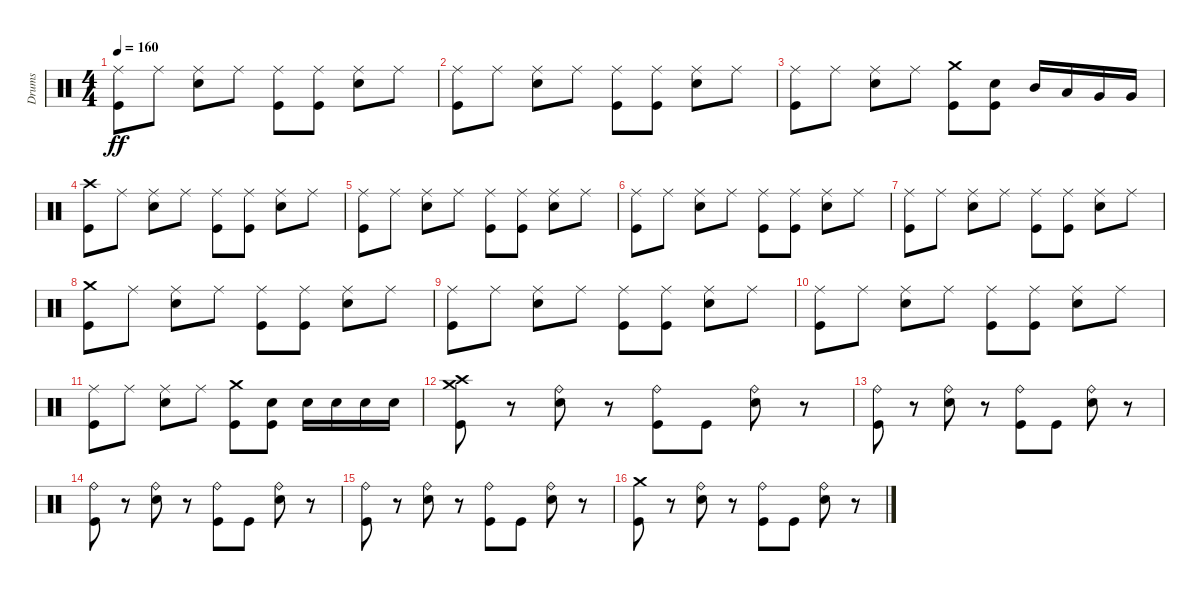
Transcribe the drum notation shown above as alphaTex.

\track ("Drums" "Drums") {instrument percussion}
\staff {score}
\articulation defaults
\ts (4 4)
\tempo 160
\clef neutral
\ks c
("Ride (middle)" "Kick (hit)").8{dy ff} "Ride (middle)".8 ("Ride (middle)" "Electric Snare (hit)").8 "Ride (middle)".8 ("Ride (middle)" "Kick (hit)").8 ("Ride (middle)" "Kick (hit)").8 ("Ride (middle)" "Electric Snare (hit)").8 "Ride (middle)".8 |
("Ride (middle)" "Kick (hit)").8 "Ride (middle)".8 ("Ride (middle)" "Electric Snare (hit)").8 "Ride (middle)".8 ("Ride (middle)" "Kick (hit)").8 ("Ride (middle)" "Kick (hit)").8 ("Ride (middle)" "Electric Snare (hit)").8 "Ride (middle)".8 |
("Ride (middle)" "Kick (hit)").8 "Ride (middle)".8 ("Ride (middle)" "Electric Snare (hit)").8 "Ride (middle)".8 ("Crash medium (hit)" "Kick (hit)").8 ("Electric Snare (hit)" "Kick (hit)").8 "Mid Tom (hit)".16 "Low Tom (hit)".16 "Very Low Tom (hit)".16 "Very Low Tom (hit)".16 |
("Crash high (hit)" "Kick (hit)").8 "Ride (middle)".8 ("Ride (middle)" "Electric Snare (hit)").8 "Ride (middle)".8 ("Ride (middle)" "Kick (hit)").8 ("Ride (middle)" "Kick (hit)").8 ("Ride (middle)" "Electric Snare (hit)").8 "Ride (middle)".8 |
("Ride (middle)" "Kick (hit)").8 "Ride (middle)".8 ("Ride (middle)" "Electric Snare (hit)").8 "Ride (middle)".8 ("Ride (middle)" "Kick (hit)").8 ("Ride (middle)" "Kick (hit)").8 ("Ride (middle)" "Electric Snare (hit)").8 "Ride (middle)".8 |
("Ride (middle)" "Kick (hit)").8 "Ride (middle)".8 ("Ride (middle)" "Electric Snare (hit)").8 "Ride (middle)".8 ("Ride (middle)" "Kick (hit)").8 ("Ride (middle)" "Kick (hit)").8 ("Ride (middle)" "Electric Snare (hit)").8 "Ride (middle)".8 |
("Ride (middle)" "Kick (hit)").8 "Ride (middle)".8 ("Ride (middle)" "Electric Snare (hit)").8 "Ride (middle)".8 ("Ride (middle)" "Kick (hit)").8 ("Ride (middle)" "Kick (hit)").8 ("Ride (middle)" "Electric Snare (hit)").8 "Ride (middle)".8 |
("Crash medium (hit)" "Kick (hit)").8 "Ride (middle)".8 ("Ride (middle)" "Electric Snare (hit)").8 "Ride (middle)".8 ("Ride (middle)" "Kick (hit)").8 ("Ride (middle)" "Kick (hit)").8 ("Ride (middle)" "Electric Snare (hit)").8 "Ride (middle)".8 |
("Ride (middle)" "Kick (hit)").8 "Ride (middle)".8 ("Ride (middle)" "Electric Snare (hit)").8 "Ride (middle)".8 ("Ride (middle)" "Kick (hit)").8 ("Ride (middle)" "Kick (hit)").8 ("Ride (middle)" "Electric Snare (hit)").8 "Ride (middle)".8 |
("Ride (middle)" "Kick (hit)").8 "Ride (middle)".8 ("Ride (middle)" "Electric Snare (hit)").8 "Ride (middle)".8 ("Ride (middle)" "Kick (hit)").8 ("Ride (middle)" "Kick (hit)").8 ("Ride (middle)" "Electric Snare (hit)").8 "Ride (middle)".8 |
("Ride (middle)" "Kick (hit)").8 "Ride (middle)".8 ("Ride (middle)" "Electric Snare (hit)").8 "Ride (middle)".8 ("Crash medium (hit)" "Kick (hit)").8 ("Electric Snare (hit)" "Kick (hit)").8 "Electric Snare (hit)".16 "Electric Snare (hit)".16 "Electric Snare (hit)".16 "Electric Snare (hit)".16 |
("Crash high (hit)" "Crash medium (hit)" "Kick (hit)").8 r.8 ("Ride (bell)" "Electric Snare (hit)").8 r.8 ("Ride (bell)" "Kick (hit)").8 "Kick (hit)".8 ("Ride (bell)" "Electric Snare (hit)").8 r.8 |
("Ride (bell)" "Kick (hit)").8 r.8 ("Ride (bell)" "Electric Snare (hit)").8 r.8 ("Ride (bell)" "Kick (hit)").8 "Kick (hit)".8 ("Ride (bell)" "Electric Snare (hit)").8 r.8 |
("Ride (bell)" "Kick (hit)").8 r.8 ("Ride (bell)" "Electric Snare (hit)").8 r.8 ("Ride (bell)" "Kick (hit)").8 "Kick (hit)".8 ("Ride (bell)" "Electric Snare (hit)").8 r.8 |
("Ride (bell)" "Kick (hit)").8 r.8 ("Ride (bell)" "Electric Snare (hit)").8 r.8 ("Ride (bell)" "Kick (hit)").8 "Kick (hit)".8 ("Ride (bell)" "Electric Snare (hit)").8 r.8 |
("Crash medium (hit)" "Kick (hit)").8 r.8 ("Ride (bell)" "Electric Snare (hit)").8 r.8 ("Ride (bell)" "Kick (hit)").8 "Kick (hit)".8 ("Ride (bell)" "Electric Snare (hit)").8 r.8
